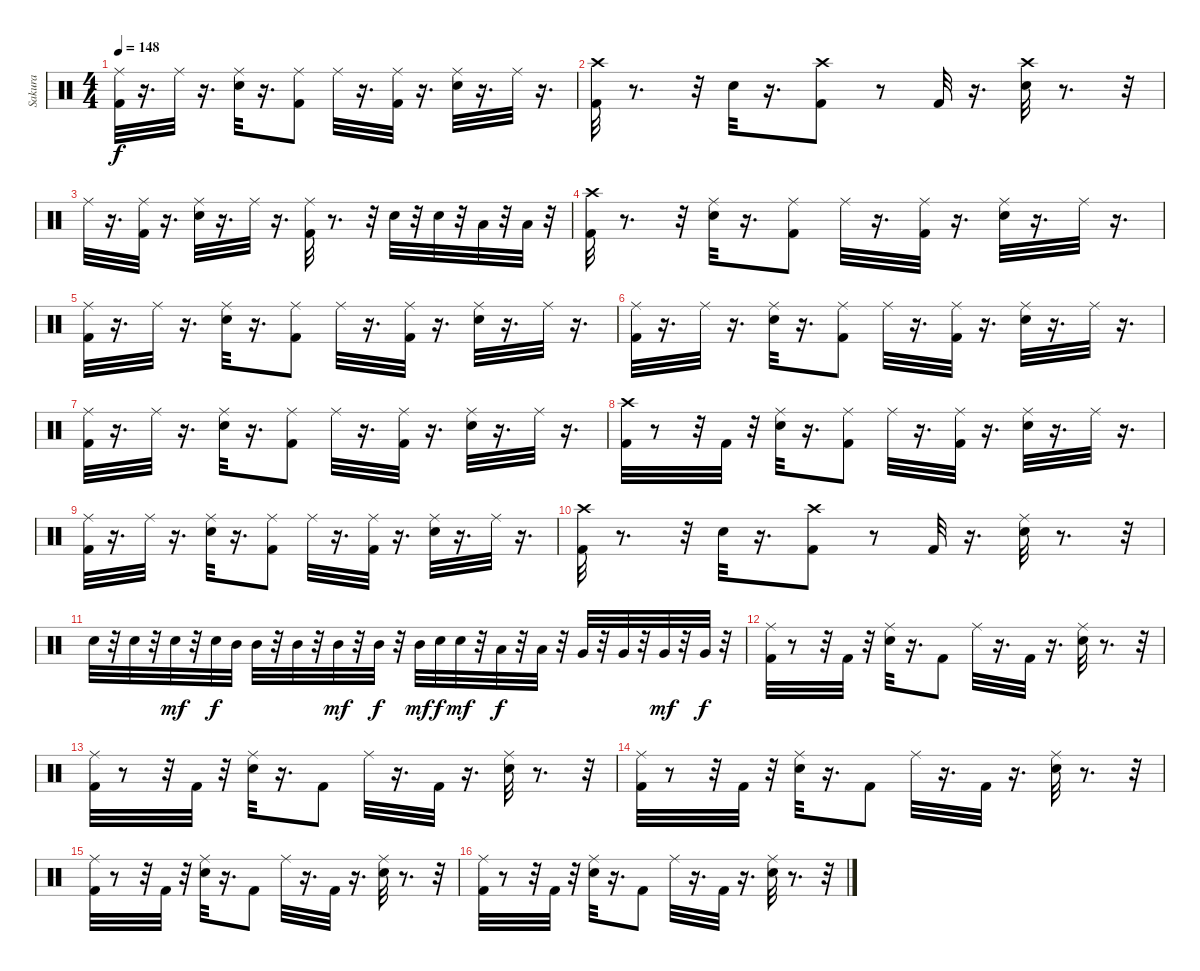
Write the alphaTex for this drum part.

\track ("Sakura" "Sakura") {instrument percussion}
\staff {score}
\articulation defaults
\ts (4 4)
\tempo 148
\clef neutral
\ks c
("Ride (middle)" "Kick (hit) 2").32{dy f} r.16{d} "Ride (middle)".32 r.16{d} ("Snare (hit) 2" "Ride (middle)").32 r.16{d} ("Ride (middle)" "Kick (hit) 2").8 "Ride (middle)".32 r.16{d} ("Kick (hit) 2" "Ride (middle)").32 r.16{d} ("Ride (middle)" "Snare (hit) 2").32 r.16{d} "Ride (middle)".32 r.16{d} |
("Crash high (hit)" "Kick (hit) 2").32 r.8{d} r.32 "Snare (hit) 2".32 r.16{d} ("Crash high (hit)" "Kick (hit) 2").8 r.8 "Kick (hit) 2".32 r.16{d} ("Crash high (hit)" "Snare (hit) 2").32 r.8{d} r.32 |
"Ride (middle)".32 r.16{d} ("Ride (middle)" "Kick (hit) 2").32 r.16{d} ("Ride (middle)" "Snare (hit) 2").32 r.16{d} "Ride (middle)".32 r.16{d} ("Ride (middle)" "Kick (hit) 2").32 r.8{d} r.32 "Snare (hit) 2".32 r.32 "Snare (hit) 2".32 r.32 "Low Tom (hit)".32 r.32 "Low Tom (hit)".32 r.32 |
("Crash high (hit)" "Kick (hit) 2").32 r.8{d} r.32 ("Snare (hit) 2" "Ride (middle)").32 r.16{d} ("Ride (middle)" "Kick (hit) 2").8 "Ride (middle)".32 r.16{d} ("Kick (hit) 2" "Ride (middle)").32 r.16{d} ("Ride (middle)" "Snare (hit) 2").32 r.16{d} "Ride (middle)".32 r.16{d} |
("Ride (middle)" "Kick (hit) 2").32 r.16{d} "Ride (middle)".32 r.16{d} ("Snare (hit) 2" "Ride (middle)").32 r.16{d} ("Ride (middle)" "Kick (hit) 2").8 "Ride (middle)".32 r.16{d} ("Kick (hit) 2" "Ride (middle)").32 r.16{d} ("Ride (middle)" "Snare (hit) 2").32 r.16{d} "Ride (middle)".32 r.16{d} |
("Ride (middle)" "Kick (hit) 2").32 r.16{d} "Ride (middle)".32 r.16{d} ("Snare (hit) 2" "Ride (middle)").32 r.16{d} ("Ride (middle)" "Kick (hit) 2").8 "Ride (middle)".32 r.16{d} ("Kick (hit) 2" "Ride (middle)").32 r.16{d} ("Ride (middle)" "Snare (hit) 2").32 r.16{d} "Ride (middle)".32 r.16{d} |
("Ride (middle)" "Kick (hit) 2").32 r.16{d} "Ride (middle)".32 r.16{d} ("Snare (hit) 2" "Ride (middle)").32 r.16{d} ("Ride (middle)" "Kick (hit) 2").8 "Ride (middle)".32 r.16{d} ("Kick (hit) 2" "Ride (middle)").32 r.16{d} ("Ride (middle)" "Snare (hit) 2").32 r.16{d} "Ride (middle)".32 r.16{d} |
("Crash high (hit)" "Kick (hit) 2").32 r.8 r.32 "Kick (hit) 2".32 r.32 ("Ride (middle)" "Snare (hit) 2").32 r.16{d} ("Ride (middle)" "Kick (hit) 2").8 "Ride (middle)".32 r.16{d} ("Ride (middle)" "Kick (hit) 2").32 r.16{d} ("Ride (middle)" "Snare (hit) 2").32 r.16{d} "Ride (middle)".32 r.16{d} |
("Ride (middle)" "Kick (hit) 2").32 r.16{d} "Ride (middle)".32 r.16{d} ("Ride (middle)" "Snare (hit) 2").32 r.16{d} ("Ride (middle)" "Kick (hit) 2").8 "Ride (middle)".32 r.16{d} ("Ride (middle)" "Kick (hit) 2").32 r.16{d} ("Ride (middle)" "Snare (hit) 2").32 r.16{d} "Ride (middle)".32 r.16{d} |
("Crash high (hit)" "Kick (hit) 2").32 r.8{d} r.32 "Snare (hit) 2".32 r.16{d} ("Crash high (hit)" "Kick (hit) 2").8 r.8 "Kick (hit) 2".32 r.16{d} ("Ride (middle)" "Snare (hit) 2").32 r.8{d} r.32 |
"Snare (hit) 2".32 r.32 "Snare (hit) 2".32 r.32 "Snare (hit) 2".32{dy mf} r.32 "Snare (hit) 2".32{dy f} "Mid Tom (hit)".32 "Mid Tom (hit)".32 r.32 "Mid Tom (hit)".32 r.32 "Mid Tom (hit)".32{dy mf} r.32 "Mid Tom (hit)".32{dy f} r.32 "Mid Tom (hit)".32{dy mf} "Snare (hit) 2".32{dy f} "Snare (hit) 2".32{dy mf} r.32 "Low Tom (hit)".32{dy f} r.32 "Low Tom (hit)".32 r.32 "Very Low Tom (hit)".32 r.32 "Very Low Tom (hit)".32 r.32 "Very Low Tom (hit)".32{dy mf} r.32 "Very Low Tom (hit)".32{dy f} r.32 |
("Ride (middle)" "Kick (hit) 2").32 r.8 r.32 "Kick (hit) 2".32 r.32 ("Ride (middle)" "Snare (hit) 2").32 r.16{d} "Kick (hit) 2".8 "Ride (middle)".32 r.16{d} "Kick (hit) 2".32 r.16{d} ("Ride (middle)" "Snare (hit) 2").32 r.8{d} r.32 |
("Ride (middle)" "Kick (hit) 2").32 r.8 r.32 "Kick (hit) 2".32 r.32 ("Ride (middle)" "Snare (hit) 2").32 r.16{d} "Kick (hit) 2".8 "Ride (middle)".32 r.16{d} "Kick (hit) 2".32 r.16{d} ("Ride (middle)" "Snare (hit) 2").32 r.8{d} r.32 |
("Ride (middle)" "Kick (hit) 2").32 r.8 r.32 "Kick (hit) 2".32 r.32 ("Ride (middle)" "Snare (hit) 2").32 r.16{d} "Kick (hit) 2".8 "Ride (middle)".32 r.16{d} "Kick (hit) 2".32 r.16{d} ("Ride (middle)" "Snare (hit) 2").32 r.8{d} r.32 |
("Ride (middle)" "Kick (hit) 2").32 r.8 r.32 "Kick (hit) 2".32 r.32 ("Ride (middle)" "Snare (hit) 2").32 r.16{d} "Kick (hit) 2".8 "Ride (middle)".32 r.16{d} "Kick (hit) 2".32 r.16{d} ("Ride (middle)" "Snare (hit) 2").32 r.8{d} r.32 |
("Ride (middle)" "Kick (hit) 2").32 r.8 r.32 "Kick (hit) 2".32 r.32 ("Ride (middle)" "Snare (hit) 2").32 r.16{d} "Kick (hit) 2".8 "Ride (middle)".32 r.16{d} "Kick (hit) 2".32 r.16{d} ("Ride (middle)" "Snare (hit) 2").32 r.8{d} r.32
